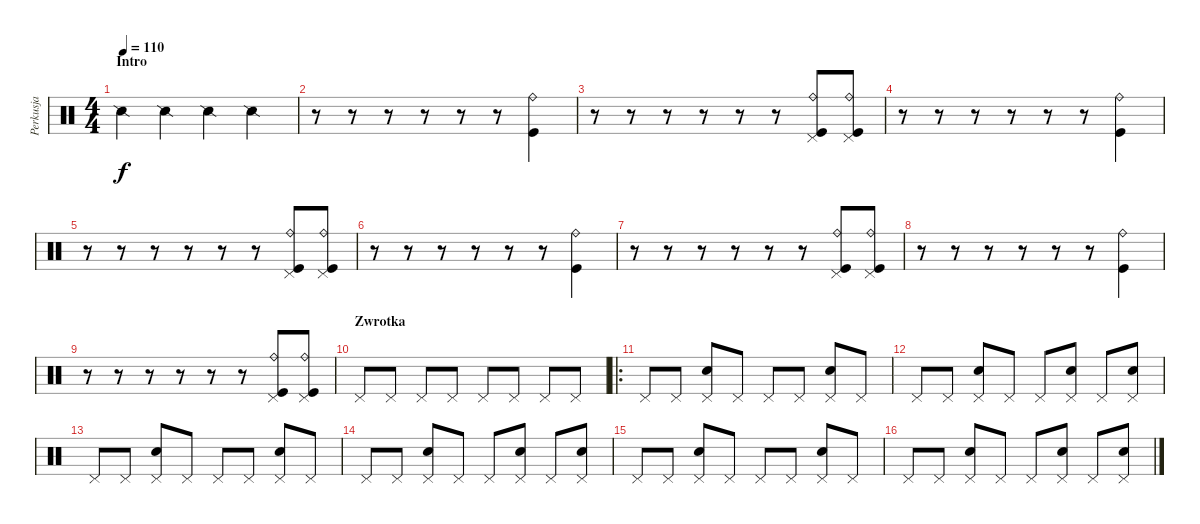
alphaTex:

\track ("Perkusja" "Perkusja") {instrument percussion}
\staff {score}
\articulation defaults
\ts (4 4)
\section ("" "Intro")
\tempo 110
\clef neutral
\ks c "Snare (side stick) 2".4{dy f} "Snare (side stick) 2".4 "Snare (side stick) 2".4 "Snare (side stick) 2".4
|
r.8 r.8 r.8 r.8 r.8 r.8 ("Kick (hit)" "Ride (bell)").4 |
r.8 r.8 r.8 r.8 r.8 r.8 ("Kick (hit)" "Ride (bell)" "Pedal Hi-Hat (hit)").8 ("Kick (hit)" "Ride (bell)" "Pedal Hi-Hat (hit)").8 |
r.8 r.8 r.8 r.8 r.8 r.8 ("Kick (hit)" "Ride (bell)").4 |
r.8 r.8 r.8 r.8 r.8 r.8 ("Kick (hit)" "Ride (bell)" "Pedal Hi-Hat (hit)").8 ("Kick (hit)" "Ride (bell)" "Pedal Hi-Hat (hit)").8 |
r.8 r.8 r.8 r.8 r.8 r.8 ("Kick (hit)" "Ride (bell)").4 |
r.8 r.8 r.8 r.8 r.8 r.8 ("Kick (hit)" "Ride (bell)" "Pedal Hi-Hat (hit)").8 ("Kick (hit)" "Ride (bell)" "Pedal Hi-Hat (hit)").8 |
r.8 r.8 r.8 r.8 r.8 r.8 ("Kick (hit)" "Ride (bell)").4 |
r.8 r.8 r.8 r.8 r.8 r.8 ("Kick (hit)" "Ride (bell)" "Pedal Hi-Hat (hit)").8 ("Kick (hit)" "Ride (bell)" "Pedal Hi-Hat (hit)").8 |
\section ("" "Zwrotka")
"Pedal Hi-Hat (hit)".8 "Pedal Hi-Hat (hit)".8 "Pedal Hi-Hat (hit)".8 "Pedal Hi-Hat (hit)".8 "Pedal Hi-Hat (hit)".8 "Pedal Hi-Hat (hit)".8 "Pedal Hi-Hat (hit)".8 "Pedal Hi-Hat (hit)".8 |
\ro "Pedal Hi-Hat (hit)".8 "Pedal Hi-Hat (hit)".8
("Electric Snare (hit)" "Pedal Hi-Hat (hit)").8 "Pedal Hi-Hat (hit)".8 "Pedal Hi-Hat (hit)".8 "Pedal Hi-Hat (hit)".8 ("Electric Snare (hit)" "Pedal Hi-Hat (hit)").8 "Pedal Hi-Hat (hit)".8 |
"Pedal Hi-Hat (hit)".8 "Pedal Hi-Hat (hit)".8 ("Electric Snare (hit)" "Pedal Hi-Hat (hit)").8 "Pedal Hi-Hat (hit)".8 "Pedal Hi-Hat (hit)".8 ("Electric Snare (hit)" "Pedal Hi-Hat (hit)").8 "Pedal Hi-Hat (hit)".8 ("Electric Snare (hit)" "Pedal Hi-Hat (hit)").8 |
"Pedal Hi-Hat (hit)".8 "Pedal Hi-Hat (hit)".8 ("Electric Snare (hit)" "Pedal Hi-Hat (hit)").8 "Pedal Hi-Hat (hit)".8 "Pedal Hi-Hat (hit)".8 "Pedal Hi-Hat (hit)".8 ("Electric Snare (hit)" "Pedal Hi-Hat (hit)").8 "Pedal Hi-Hat (hit)".8 |
"Pedal Hi-Hat (hit)".8 "Pedal Hi-Hat (hit)".8 ("Electric Snare (hit)" "Pedal Hi-Hat (hit)").8 "Pedal Hi-Hat (hit)".8 "Pedal Hi-Hat (hit)".8 ("Electric Snare (hit)" "Pedal Hi-Hat (hit)").8 "Pedal Hi-Hat (hit)".8 ("Electric Snare (hit)" "Pedal Hi-Hat (hit)").8 |
"Pedal Hi-Hat (hit)".8 "Pedal Hi-Hat (hit)".8 ("Electric Snare (hit)" "Pedal Hi-Hat (hit)").8 "Pedal Hi-Hat (hit)".8 "Pedal Hi-Hat (hit)".8 "Pedal Hi-Hat (hit)".8 ("Electric Snare (hit)" "Pedal Hi-Hat (hit)").8 "Pedal Hi-Hat (hit)".8 |
"Pedal Hi-Hat (hit)".8 "Pedal Hi-Hat (hit)".8 ("Electric Snare (hit)" "Pedal Hi-Hat (hit)").8 "Pedal Hi-Hat (hit)".8 "Pedal Hi-Hat (hit)".8 ("Electric Snare (hit)" "Pedal Hi-Hat (hit)").8 "Pedal Hi-Hat (hit)".8 ("Electric Snare (hit)" "Pedal Hi-Hat (hit)").8
